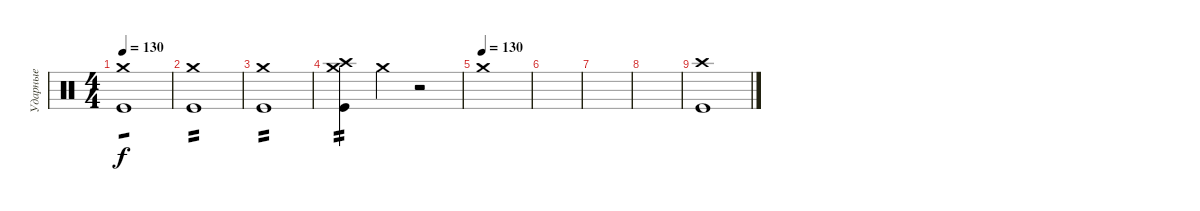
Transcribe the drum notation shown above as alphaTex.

\track ("Ударные" "Ударные") {instrument percussion}
\staff {score}
\articulation defaults
\ts (4 4)
\tempo 130
\tempo 100
\tempo 130
\clef neutral
\ks c
("Crash medium (hit)" "Kick (hit)").1{tp 1 dy f} |
("Crash medium (hit)" "Kick (hit)").1{tp 2} |
("Crash medium (hit)" "Kick (hit)").1{tp 2} |
("Crash medium (hit)" "Crash high (hit)" "Kick (hit)").4{tp 2} "Crash medium (hit)".4 r.2 |
\tempo (130)
"Crash medium (hit)".1 |
|
|
|
("Crash high (hit)" "Kick (hit)").1
